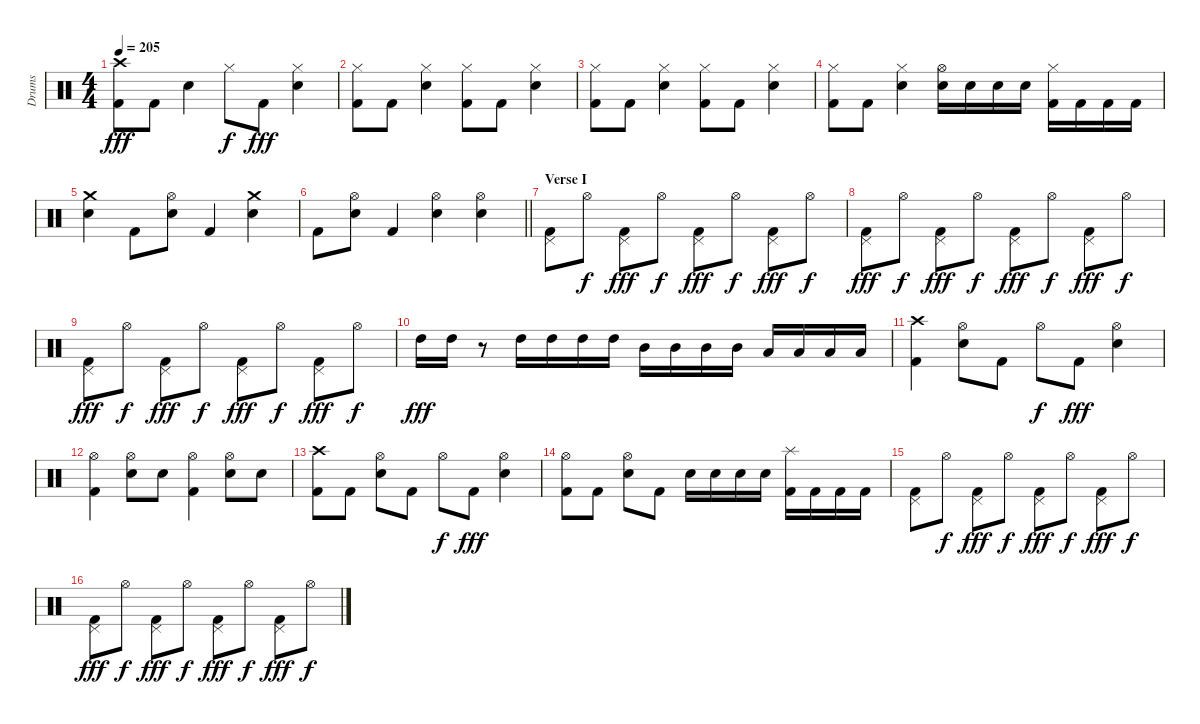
\track ("Drums" "Drums") {instrument percussion}
\staff {score}
\articulation defaults
\ts (4 4)
\tempo 205
\clef neutral
\ks c
("Crash high (hit)" "Kick (hit) 2").8{dy fff} "Kick (hit) 2".8 "Snare (hit) 2".4 "Hi-Hat (closed)".8{dy f} "Kick (hit) 2".8{dy fff} ("Hi-Hat (closed)" "Snare (hit) 2").4 |
("Hi-Hat (closed)" "Kick (hit) 2").8 "Kick (hit) 2".8 ("Hi-Hat (closed)" "Snare (hit) 2").4 ("Hi-Hat (closed)" "Kick (hit) 2").8 "Kick (hit) 2".8 ("Hi-Hat (closed)" "Snare (hit) 2").4 |
("Hi-Hat (closed)" "Kick (hit) 2").8 "Kick (hit) 2".8 ("Hi-Hat (closed)" "Snare (hit) 2").4 ("Hi-Hat (closed)" "Kick (hit) 2").8 "Kick (hit) 2".8 ("Hi-Hat (closed)" "Snare (hit) 2").4 |
("Hi-Hat (closed)" "Kick (hit) 2").8 "Kick (hit) 2".8 ("Hi-Hat (closed)" "Snare (hit) 2").4 ("Hi-Hat (open)" "Snare (hit) 2").16 "Snare (hit) 2".16 "Snare (hit) 2".16 "Snare (hit) 2".16 ("Hi-Hat (closed)" "Kick (hit) 2").16 "Kick (hit) 2".16 "Kick (hit) 2".16 "Kick (hit) 2".16 |
("Crash medium (hit)" "Snare (hit) 2").4 "Kick (hit) 2".8 ("Hi-Hat (open)" "Snare (hit) 2").8 "Kick (hit) 2".4 ("Crash medium (hit)" "Snare (hit) 2").4 |
\barLineRight lightlight "Kick (hit) 2".8
("Hi-Hat (open)" "Snare (hit) 2").8 "Kick (hit) 2".4 ("Hi-Hat (open)" "Snare (hit) 2").4 ("Hi-Hat (open)" "Snare (hit) 2").4 |
\section ("" "Verse I")
("Pedal Hi-Hat (hit)" "Kick (hit) 2").8 "Hi-Hat (open)".8{dy f} ("Pedal Hi-Hat (hit)" "Kick (hit) 2").8{dy fff} "Hi-Hat (open)".8{dy f} ("Pedal Hi-Hat (hit)" "Kick (hit) 2").8{dy fff} "Hi-Hat (open)".8{dy f} ("Pedal Hi-Hat (hit)" "Kick (hit) 2").8{dy fff} "Hi-Hat (open)".8{dy f} |
("Pedal Hi-Hat (hit)" "Kick (hit) 2").8{dy fff} "Hi-Hat (open)".8{dy f} ("Pedal Hi-Hat (hit)" "Kick (hit) 2").8{dy fff} "Hi-Hat (open)".8{dy f} ("Pedal Hi-Hat (hit)" "Kick (hit) 2").8{dy fff} "Hi-Hat (open)".8{dy f} ("Pedal Hi-Hat (hit)" "Kick (hit) 2").8{dy fff} "Hi-Hat (open)".8{dy f} |
("Pedal Hi-Hat (hit)" "Kick (hit) 2").8{dy fff} "Hi-Hat (open)".8{dy f} ("Pedal Hi-Hat (hit)" "Kick (hit) 2").8{dy fff} "Hi-Hat (open)".8{dy f} ("Pedal Hi-Hat (hit)" "Kick (hit) 2").8{dy fff} "Hi-Hat (open)".8{dy f} ("Pedal Hi-Hat (hit)" "Kick (hit) 2").8{dy fff} "Hi-Hat (open)".8{dy f} |
"High Tom (hit)".16{dy fff} "High Tom (hit)".16 r.8 "High Tom (hit)".16 "High Tom (hit)".16 "High Tom (hit)".16 "High Tom (hit)".16 "Mid Tom (hit)".16 "Mid Tom (hit)".16 "Mid Tom (hit)".16 "Mid Tom (hit)".16 "Low Tom (hit)".16 "Low Tom (hit)".16 "Low Tom (hit)".16 "Low Tom (hit)".16 |
("Crash high (hit)" "Kick (hit) 2").4 ("Hi-Hat (open)" "Snare (hit) 2").8 "Kick (hit) 2".8 "Hi-Hat (open)".8{dy f} "Kick (hit) 2".8{dy fff} ("Hi-Hat (open)" "Snare (hit) 2").4 |
("Hi-Hat (open)" "Kick (hit) 2").4 ("Hi-Hat (open)" "Snare (hit) 2").8 "Snare (hit) 2".8 ("Hi-Hat (open)" "Kick (hit) 2").4 ("Hi-Hat (open)" "Snare (hit) 2").8 "Snare (hit) 2".8 |
("Crash high (hit)" "Kick (hit) 2").8 "Kick (hit) 2".8 ("Hi-Hat (open)" "Snare (hit) 2").8 "Kick (hit) 2".8 "Hi-Hat (open)".8{dy f} "Kick (hit) 2".8{dy fff} ("Hi-Hat (open)" "Snare (hit) 2").4 |
("Hi-Hat (open)" "Kick (hit) 2").8 "Kick (hit) 2".8 ("Hi-Hat (open)" "Snare (hit) 2").8 "Kick (hit) 2".8 "Snare (hit) 2".16 "Snare (hit) 2".16 "Snare (hit) 2".16 "Snare (hit) 2".16 ("Splash (hit)" "Kick (hit) 2").16 "Kick (hit) 2".16 "Kick (hit) 2".16 "Kick (hit) 2".16 |
("Pedal Hi-Hat (hit)" "Kick (hit) 2").8 "Hi-Hat (open)".8{dy f} ("Pedal Hi-Hat (hit)" "Kick (hit) 2").8{dy fff} "Hi-Hat (open)".8{dy f} ("Pedal Hi-Hat (hit)" "Kick (hit) 2").8{dy fff} "Hi-Hat (open)".8{dy f} ("Pedal Hi-Hat (hit)" "Kick (hit) 2").8{dy fff} "Hi-Hat (open)".8{dy f} |
("Pedal Hi-Hat (hit)" "Kick (hit) 2").8{dy fff} "Hi-Hat (open)".8{dy f} ("Pedal Hi-Hat (hit)" "Kick (hit) 2").8{dy fff} "Hi-Hat (open)".8{dy f} ("Pedal Hi-Hat (hit)" "Kick (hit) 2").8{dy fff} "Hi-Hat (open)".8{dy f} ("Pedal Hi-Hat (hit)" "Kick (hit) 2").8{dy fff} "Hi-Hat (open)".8{dy f}
